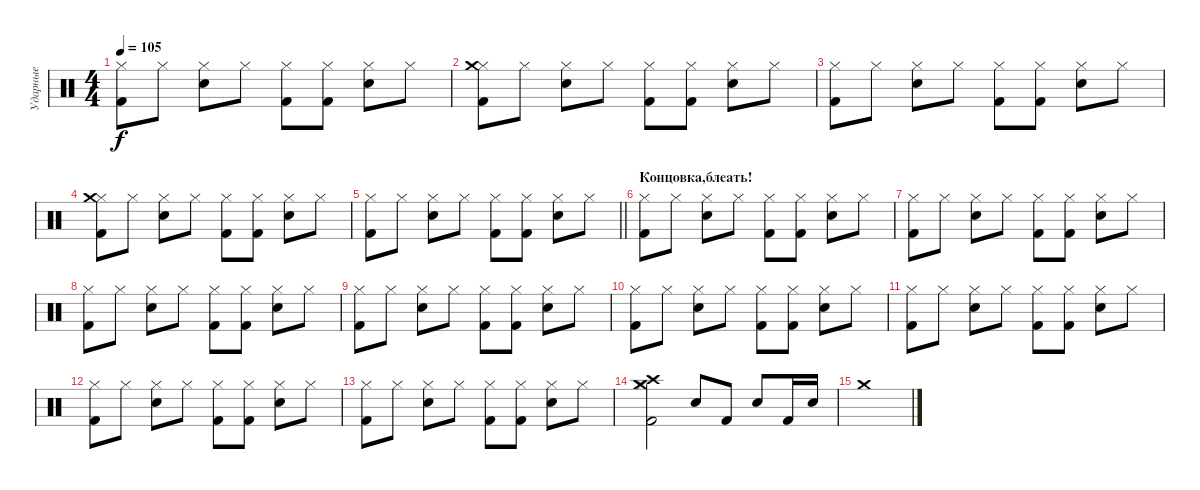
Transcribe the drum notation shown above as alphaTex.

\track ("Ударные" "Ударные") {instrument percussion}
\staff {score}
\articulation defaults
\ts (4 4)
\tempo 105
\clef neutral
\ks c
("Hi-Hat (closed)" "Kick (hit) 2").8{dy f} "Hi-Hat (closed)".8 ("Hi-Hat (closed)" "Electric Snare (hit)").8 "Hi-Hat (closed)".8 ("Hi-Hat (closed)" "Kick (hit) 2").8 ("Hi-Hat (closed)" "Kick (hit) 2").8 ("Hi-Hat (closed)" "Electric Snare (hit)").8 "Hi-Hat (closed)".8 |
("Hi-Hat (closed)" "Kick (hit) 2" "Crash medium (hit)").8 "Hi-Hat (closed)".8 ("Hi-Hat (closed)" "Electric Snare (hit)").8 "Hi-Hat (closed)".8 ("Hi-Hat (closed)" "Kick (hit) 2").8 ("Hi-Hat (closed)" "Kick (hit) 2").8 ("Hi-Hat (closed)" "Electric Snare (hit)").8 "Hi-Hat (closed)".8 |
("Hi-Hat (closed)" "Kick (hit) 2").8 "Hi-Hat (closed)".8 ("Hi-Hat (closed)" "Electric Snare (hit)").8 "Hi-Hat (closed)".8 ("Hi-Hat (closed)" "Kick (hit) 2").8 ("Hi-Hat (closed)" "Kick (hit) 2").8 ("Hi-Hat (closed)" "Electric Snare (hit)").8 "Hi-Hat (closed)".8 |
("Hi-Hat (closed)" "Kick (hit) 2" "Crash medium (hit)").8 "Hi-Hat (closed)".8 ("Hi-Hat (closed)" "Electric Snare (hit)").8 "Hi-Hat (closed)".8 ("Hi-Hat (closed)" "Kick (hit) 2").8 ("Hi-Hat (closed)" "Kick (hit) 2").8 ("Hi-Hat (closed)" "Electric Snare (hit)").8 "Hi-Hat (closed)".8 |
\barLineRight lightlight
("Hi-Hat (closed)" "Kick (hit) 2").8 "Hi-Hat (closed)".8 ("Hi-Hat (closed)" "Electric Snare (hit)").8 "Hi-Hat (closed)".8 ("Hi-Hat (closed)" "Kick (hit) 2").8 ("Hi-Hat (closed)" "Kick (hit) 2").8 ("Hi-Hat (closed)" "Electric Snare (hit)").8 "Hi-Hat (closed)".8 |
\section ("" "Концовка,блеать!")
("Hi-Hat (closed)" "Kick (hit) 2").8 "Hi-Hat (closed)".8 ("Hi-Hat (closed)" "Electric Snare (hit)").8 "Hi-Hat (closed)".8 ("Hi-Hat (closed)" "Kick (hit) 2").8 ("Hi-Hat (closed)" "Kick (hit) 2").8 ("Hi-Hat (closed)" "Electric Snare (hit)").8 "Hi-Hat (closed)".8 |
("Hi-Hat (closed)" "Kick (hit) 2").8 "Hi-Hat (closed)".8 ("Hi-Hat (closed)" "Electric Snare (hit)").8 "Hi-Hat (closed)".8 ("Hi-Hat (closed)" "Kick (hit) 2").8 ("Hi-Hat (closed)" "Kick (hit) 2").8 ("Hi-Hat (closed)" "Electric Snare (hit)").8 "Hi-Hat (closed)".8 |
("Hi-Hat (closed)" "Kick (hit) 2").8 "Hi-Hat (closed)".8 ("Hi-Hat (closed)" "Electric Snare (hit)").8 "Hi-Hat (closed)".8 ("Hi-Hat (closed)" "Kick (hit) 2").8 ("Hi-Hat (closed)" "Kick (hit) 2").8 ("Hi-Hat (closed)" "Electric Snare (hit)").8 "Hi-Hat (closed)".8 |
("Hi-Hat (closed)" "Kick (hit) 2").8 "Hi-Hat (closed)".8 ("Hi-Hat (closed)" "Electric Snare (hit)").8 "Hi-Hat (closed)".8 ("Hi-Hat (closed)" "Kick (hit) 2").8 ("Hi-Hat (closed)" "Kick (hit) 2").8 ("Hi-Hat (closed)" "Electric Snare (hit)").8 "Hi-Hat (closed)".8 |
("Hi-Hat (closed)" "Kick (hit) 2").8 "Hi-Hat (closed)".8 ("Hi-Hat (closed)" "Electric Snare (hit)").8 "Hi-Hat (closed)".8 ("Hi-Hat (closed)" "Kick (hit) 2").8 ("Hi-Hat (closed)" "Kick (hit) 2").8 ("Hi-Hat (closed)" "Electric Snare (hit)").8 "Hi-Hat (closed)".8 |
("Hi-Hat (closed)" "Kick (hit) 2").8 "Hi-Hat (closed)".8 ("Hi-Hat (closed)" "Electric Snare (hit)").8 "Hi-Hat (closed)".8 ("Hi-Hat (closed)" "Kick (hit) 2").8 ("Hi-Hat (closed)" "Kick (hit) 2").8 ("Hi-Hat (closed)" "Electric Snare (hit)").8 "Hi-Hat (closed)".8 |
("Hi-Hat (closed)" "Kick (hit) 2").8 "Hi-Hat (closed)".8 ("Hi-Hat (closed)" "Electric Snare (hit)").8 "Hi-Hat (closed)".8 ("Hi-Hat (closed)" "Kick (hit) 2").8 ("Hi-Hat (closed)" "Kick (hit) 2").8 ("Hi-Hat (closed)" "Electric Snare (hit)").8 "Hi-Hat (closed)".8 |
("Hi-Hat (closed)" "Kick (hit) 2").8 "Hi-Hat (closed)".8 ("Hi-Hat (closed)" "Electric Snare (hit)").8 "Hi-Hat (closed)".8 ("Hi-Hat (closed)" "Kick (hit) 2").8 ("Hi-Hat (closed)" "Kick (hit) 2").8 ("Hi-Hat (closed)" "Electric Snare (hit)").8 "Hi-Hat (closed)".8 |
("Kick (hit) 2" "Crash high (hit)" "Hi-Hat (closed)" "Crash medium (hit)").2 "Electric Snare (hit)".8 "Kick (hit) 2".8 "Electric Snare (hit)".8 "Kick (hit) 2".16 "Electric Snare (hit)".16 |
"Crash medium (hit)".1
